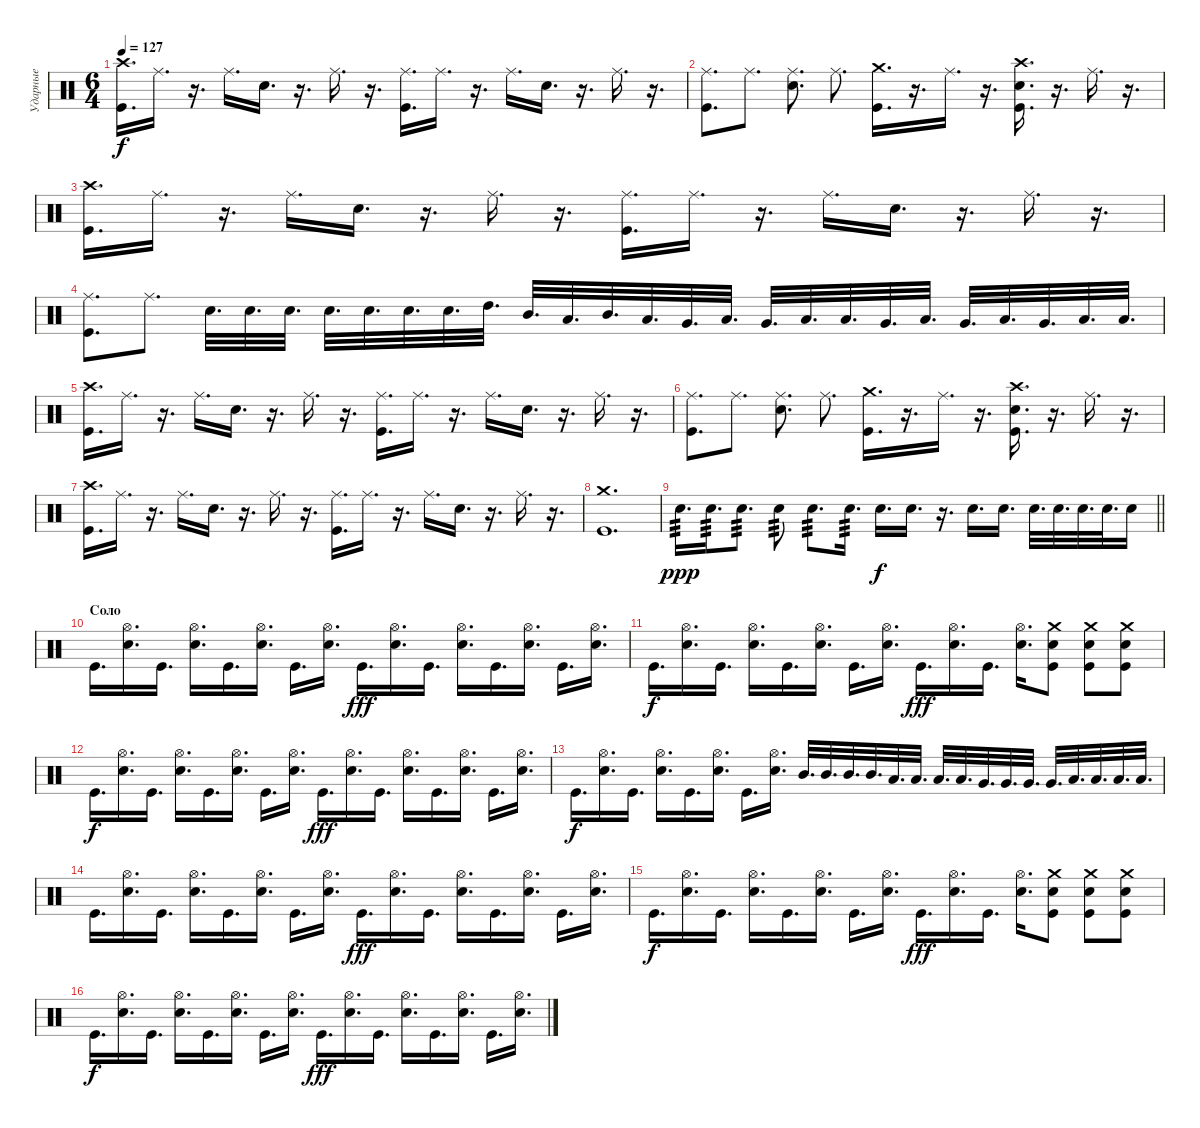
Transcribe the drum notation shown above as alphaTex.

\track ("Ударные" "Ударные") {instrument percussion}
\staff {score}
\articulation defaults
\ts (6 4)
\tempo 127
\clef neutral
\ks c
("Crash high (hit)" "Kick (hit)").16{d dy f} "Ride (middle)".16{d} r.16{d} "Ride (middle)".16{d} "Electric Snare (hit)".16{d} r.16{d} "Ride (middle)".16{d} r.16{d} ("Ride (middle)" "Kick (hit)").16{d} "Ride (middle)".16{d} r.16{d} "Ride (middle)".16{d} "Electric Snare (hit)".16{d} r.16{d} "Ride (middle)".16{d} r.16{d} |
("Ride (middle)" "Kick (hit)").8{d} "Ride (middle)".8{d} ("Ride (middle)" "Electric Snare (hit)").8{d} "Ride (middle)".8{d} ("Crash medium (hit)" "Kick (hit)").16{d} r.16{d} "Ride (middle)".16{d} r.16{d} ("Crash high (hit)" "Electric Snare (hit)" "Kick (hit)").16{d} r.16{d} "Ride (middle)".16{d} r.16{d} |
("Crash high (hit)" "Kick (hit)").16{d} "Ride (middle)".16{d} r.16{d} "Ride (middle)".16{d} "Electric Snare (hit)".16{d} r.16{d} "Ride (middle)".16{d} r.16{d} ("Ride (middle)" "Kick (hit)").16{d} "Ride (middle)".16{d} r.16{d} "Ride (middle)".16{d} "Electric Snare (hit)".16{d} r.16{d} "Ride (middle)".16{d} r.16{d} |
("Ride (middle)" "Kick (hit)").8{d} "Ride (middle)".8{d} "Electric Snare (hit)".32{d} "Electric Snare (hit)".32{d} "Electric Snare (hit)".32{d} "Electric Snare (hit)".32{d} "Electric Snare (hit)".32{d} "Electric Snare (hit)".32{d} "Electric Snare (hit)".32{d} "High Tom (hit)".32{d} "Mid Tom (hit)".32{d} "Low Tom (hit)".32{d} "Mid Tom (hit)".32{d} "Low Tom (hit)".32{d} "Very Low Tom (hit)".32{d} "Low Tom (hit)".32{d} "Very Low Tom (hit)".32{d} "Low Floor Tom (hit)".32{d} "Low Tom (hit)".32{d} "Very Low Tom (hit)".32{d} "Low Floor Tom (hit)".32{d} "Very Low Tom (hit)".32{d} "Low Tom (hit)".32{d} "Very Low Tom (hit)".32{d} "Low Floor Tom (hit)".32{d} "Low Tom (hit)".32{d} |
("Crash high (hit)" "Kick (hit)").16{d} "Ride (middle)".16{d} r.16{d} "Ride (middle)".16{d} "Electric Snare (hit)".16{d} r.16{d} "Ride (middle)".16{d} r.16{d} ("Ride (middle)" "Kick (hit)").16{d} "Ride (middle)".16{d} r.16{d} "Ride (middle)".16{d} "Electric Snare (hit)".16{d} r.16{d} "Ride (middle)".16{d} r.16{d} |
("Ride (middle)" "Kick (hit)").8{d} "Ride (middle)".8{d} ("Ride (middle)" "Electric Snare (hit)").8{d} "Ride (middle)".8{d} ("Crash medium (hit)" "Kick (hit)").16{d} r.16{d} "Ride (middle)".16{d} r.16{d} ("Crash high (hit)" "Electric Snare (hit)" "Kick (hit)").16{d} r.16{d} "Ride (middle)".16{d} r.16{d} |
("Crash high (hit)" "Kick (hit)").16{d} "Ride (middle)".16{d} r.16{d} "Ride (middle)".16{d} "Electric Snare (hit)".16{d} r.16{d} "Ride (middle)".16{d} r.16{d} ("Ride (middle)" "Kick (hit)").16{d} "Ride (middle)".16{d} r.16{d} "Ride (middle)".16{d} "Electric Snare (hit)".16{d} r.16{d} "Ride (middle)".16{d} r.16{d} |
("Crash medium (hit)" "Kick (hit)").1{d} |
\barLineRight lightlight "Electric Snare (hit)".16{d tp 3 dy ppp} "Electric Snare (hit)".16{d tp 3} "Electric Snare (hit)".8{d tp 3} "Electric Snare (hit)".8{tp 3} "Electric Snare (hit)".8{d tp 3} "Electric Snare (hit)".16{d tp 3} "Electric Snare (hit)".16{d dy f} "Electric Snare (hit)".16{d}
r.16{d} "Electric Snare (hit)".16{d} "Electric Snare (hit)".16{d} "Electric Snare (hit)".32{d} "Electric Snare (hit)".32{d} "Electric Snare (hit)".32{d} "Electric Snare (hit)".32{d} "Electric Snare (hit)".16 |
\section ("" "Соло")
"Kick (hit)".16{d} ("Hi-Hat (open)" "Electric Snare (hit)").16{d} "Kick (hit)".16{d} ("Hi-Hat (open)" "Electric Snare (hit)").16{d} "Kick (hit)".16{d} ("Hi-Hat (open)" "Electric Snare (hit)").16{d} "Kick (hit)".16{d} ("Hi-Hat (open)" "Electric Snare (hit)").16{d} "Kick (hit)".16{d dy fff} ("Hi-Hat (open)" "Electric Snare (hit)").16{d} "Kick (hit)".16{d} ("Hi-Hat (open)" "Electric Snare (hit)").16{d} "Kick (hit)".16{d} ("Hi-Hat (open)" "Electric Snare (hit)").16{d} "Kick (hit)".16{d} ("Hi-Hat (open)" "Electric Snare (hit)").16{d} |
"Kick (hit)".16{d dy f} ("Hi-Hat (open)" "Electric Snare (hit)").16{d} "Kick (hit)".16{d} ("Hi-Hat (open)" "Electric Snare (hit)").16{d} "Kick (hit)".16{d} ("Hi-Hat (open)" "Electric Snare (hit)").16{d} "Kick (hit)".16{d} ("Hi-Hat (open)" "Electric Snare (hit)").16{d} "Kick (hit)".16{d dy fff} ("Hi-Hat (open)" "Electric Snare (hit)").16{d} "Kick (hit)".16{d} ("Hi-Hat (open)" "Electric Snare (hit)").16{d} ("Crash medium (hit)" "Electric Snare (hit)" "Kick (hit)").8 ("Crash medium (hit)" "Electric Snare (hit)" "Kick (hit)").8 ("Crash medium (hit)" "Electric Snare (hit)" "Kick (hit)").8 |
"Kick (hit)".16{d dy f} ("Hi-Hat (open)" "Electric Snare (hit)").16{d} "Kick (hit)".16{d} ("Hi-Hat (open)" "Electric Snare (hit)").16{d} "Kick (hit)".16{d} ("Hi-Hat (open)" "Electric Snare (hit)").16{d} "Kick (hit)".16{d} ("Hi-Hat (open)" "Electric Snare (hit)").16{d} "Kick (hit)".16{d dy fff} ("Hi-Hat (open)" "Electric Snare (hit)").16{d} "Kick (hit)".16{d} ("Hi-Hat (open)" "Electric Snare (hit)").16{d} "Kick (hit)".16{d} ("Hi-Hat (open)" "Electric Snare (hit)").16{d} "Kick (hit)".16{d} ("Hi-Hat (open)" "Electric Snare (hit)").16{d} |
"Kick (hit)".16{d dy f} ("Hi-Hat (open)" "Electric Snare (hit)").16{d} "Kick (hit)".16{d} ("Hi-Hat (open)" "Electric Snare (hit)").16{d} "Kick (hit)".16{d} ("Hi-Hat (open)" "Electric Snare (hit)").16{d} "Kick (hit)".16{d} ("Hi-Hat (open)" "Electric Snare (hit)").16{d} "Mid Tom (hit)".32{d} "Mid Tom (hit)".32{d} "Mid Tom (hit)".32{d} "Mid Tom (hit)".32{d} "Low Tom (hit)".32{d} "Low Tom (hit)".32{d} "Low Tom (hit)".32{d} "Low Tom (hit)".32{d} "Very Low Tom (hit)".32{d} "Very Low Tom (hit)".32{d} "Very Low Tom (hit)".32{d} "Very Low Tom (hit)".32{d} "Low Floor Tom (hit)".32{d} "Low Floor Tom (hit)".32{d} "Low Floor Tom (hit)".32{d} "Low Floor Tom (hit)".32{d} |
"Kick (hit)".16{d} ("Hi-Hat (open)" "Electric Snare (hit)").16{d} "Kick (hit)".16{d} ("Hi-Hat (open)" "Electric Snare (hit)").16{d} "Kick (hit)".16{d} ("Hi-Hat (open)" "Electric Snare (hit)").16{d} "Kick (hit)".16{d} ("Hi-Hat (open)" "Electric Snare (hit)").16{d} "Kick (hit)".16{d dy fff} ("Hi-Hat (open)" "Electric Snare (hit)").16{d} "Kick (hit)".16{d} ("Hi-Hat (open)" "Electric Snare (hit)").16{d} "Kick (hit)".16{d} ("Hi-Hat (open)" "Electric Snare (hit)").16{d} "Kick (hit)".16{d} ("Hi-Hat (open)" "Electric Snare (hit)").16{d} |
"Kick (hit)".16{d dy f} ("Hi-Hat (open)" "Electric Snare (hit)").16{d} "Kick (hit)".16{d} ("Hi-Hat (open)" "Electric Snare (hit)").16{d} "Kick (hit)".16{d} ("Hi-Hat (open)" "Electric Snare (hit)").16{d} "Kick (hit)".16{d} ("Hi-Hat (open)" "Electric Snare (hit)").16{d} "Kick (hit)".16{d dy fff} ("Hi-Hat (open)" "Electric Snare (hit)").16{d} "Kick (hit)".16{d} ("Hi-Hat (open)" "Electric Snare (hit)").16{d} ("Crash medium (hit)" "Electric Snare (hit)" "Kick (hit)").8 ("Crash medium (hit)" "Electric Snare (hit)" "Kick (hit)").8 ("Crash medium (hit)" "Electric Snare (hit)" "Kick (hit)").8 |
"Kick (hit)".16{d dy f} ("Hi-Hat (open)" "Electric Snare (hit)").16{d} "Kick (hit)".16{d} ("Hi-Hat (open)" "Electric Snare (hit)").16{d} "Kick (hit)".16{d} ("Hi-Hat (open)" "Electric Snare (hit)").16{d} "Kick (hit)".16{d} ("Hi-Hat (open)" "Electric Snare (hit)").16{d} "Kick (hit)".16{d dy fff} ("Hi-Hat (open)" "Electric Snare (hit)").16{d} "Kick (hit)".16{d} ("Hi-Hat (open)" "Electric Snare (hit)").16{d} "Kick (hit)".16{d} ("Hi-Hat (open)" "Electric Snare (hit)").16{d} "Kick (hit)".16{d} ("Hi-Hat (open)" "Electric Snare (hit)").16{d}
